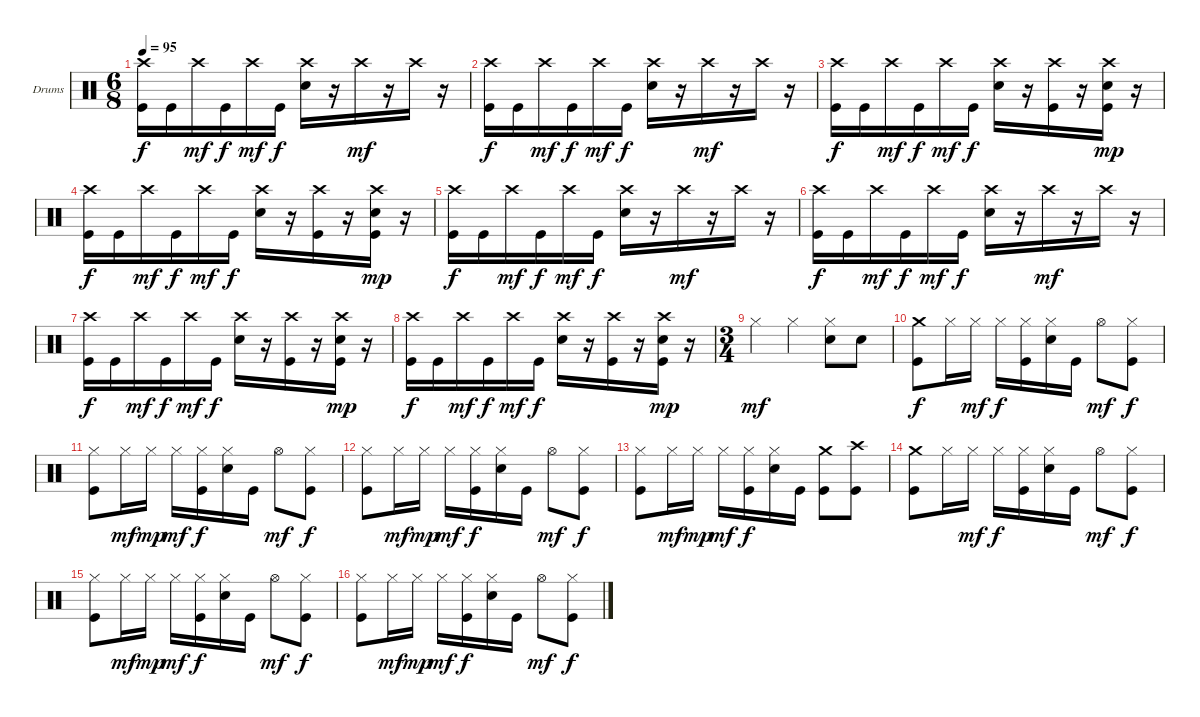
\defaultSystemsLayout 4
\bracketExtendMode groupsimilarinstruments
\firstSystemTrackNameOrientation horizontal
\otherSystemsTrackNameOrientation horizontal
\track ("Drumkit" "Drums") {instrument percussion}
\staff {score}
\articulation defaults
\ts (6 8)
\tempo 95
\clef neutral
\scale
0.474178
\ks c
("Kick (hit)" "Crash high (hit)").16{dy f} "Kick (hit)".16 "Crash high (hit)".16{dy mf} "Kick (hit)".16{dy f} "Crash high (hit)".16{dy mf} "Kick (hit)".16{dy f} ("Snare (hit) 2" "Crash high (hit)").16 r.16 "Crash high (hit)".16{dy mf} r.16 "Crash high (hit)".16 r.16 |
\scale
0.262911 ("Kick (hit)" "Crash high (hit)").16{dy f} "Kick (hit)".16 "Crash high (hit)".16{dy mf} "Kick (hit)".16{dy f} "Crash high (hit)".16{dy mf} "Kick (hit)".16{dy f} ("Snare (hit) 2" "Crash high (hit)").16 r.16 "Crash high (hit)".16{dy mf} r.16 "Crash high (hit)".16 r.16 |
\scale
0.333333 ("Kick (hit)" "Crash high (hit)").16{dy f} "Kick (hit)".16 "Crash high (hit)".16{dy mf} "Kick (hit)".16{dy f} "Crash high (hit)".16{dy mf} "Kick (hit)".16{dy f} ("Snare (hit) 2" "Crash high (hit)").16 r.16 ("Kick (hit)" "Crash high (hit)").16 r.16 ("Kick (hit)" "Snare (hit) 2" "Crash high (hit)").16{dy mp} r.16 |
\scale
0.333333 ("Kick (hit)" "Crash high (hit)").16{dy f} "Kick (hit)".16 "Crash high (hit)".16{dy mf} "Kick (hit)".16{dy f} "Crash high (hit)".16{dy mf} "Kick (hit)".16{dy f} ("Snare (hit) 2" "Crash high (hit)").16 r.16 ("Kick (hit)" "Crash high (hit)").16 r.16 ("Kick (hit)" "Snare (hit) 2" "Crash high (hit)").16{dy mp} r.16 |
\scale
0.333333 ("Kick (hit)" "Crash high (hit)").16{dy f} "Kick (hit)".16 "Crash high (hit)".16{dy mf} "Kick (hit)".16{dy f} "Crash high (hit)".16{dy mf} "Kick (hit)".16{dy f} ("Snare (hit) 2" "Crash high (hit)").16 r.16 "Crash high (hit)".16{dy mf} r.16 "Crash high (hit)".16 r.16 |
\scale
0.333333 ("Kick (hit)" "Crash high (hit)").16{dy f} "Kick (hit)".16 "Crash high (hit)".16{dy mf} "Kick (hit)".16{dy f} "Crash high (hit)".16{dy mf} "Kick (hit)".16{dy f} ("Snare (hit) 2" "Crash high (hit)").16 r.16 "Crash high (hit)".16{dy mf} r.16 "Crash high (hit)".16 r.16 |
\scale
0.333333 ("Kick (hit)" "Crash high (hit)").16{dy f} "Kick (hit)".16 "Crash high (hit)".16{dy mf} "Kick (hit)".16{dy f} "Crash high (hit)".16{dy mf} "Kick (hit)".16{dy f} ("Snare (hit) 2" "Crash high (hit)").16 r.16 ("Kick (hit)" "Crash high (hit)").16 r.16 ("Kick (hit)" "Snare (hit) 2" "Crash high (hit)").16{dy mp} r.16 |
\scale
0.333333 ("Kick (hit)" "Crash high (hit)").16{dy f} "Kick (hit)".16 "Crash high (hit)".16{dy mf} "Kick (hit)".16{dy f} "Crash high (hit)".16{dy mf} "Kick (hit)".16{dy f} ("Snare (hit) 2" "Crash high (hit)").16 r.16 ("Kick (hit)" "Crash high (hit)").16 r.16 ("Kick (hit)" "Snare (hit) 2" "Crash high (hit)").16{dy mp} r.16 |
\ts (3 4)
"Hi-Hat (closed)".4{dy mf} "Hi-Hat (closed)".4 ("Hi-Hat (closed)" "Snare (hit) 2").8 "Snare (hit) 2".8 |
\scale
0.474178 ("Kick (hit)" "Crash medium (hit)").8{dy f} "Hi-Hat (closed)".16 "Hi-Hat (closed)".16{dy mf} "Hi-Hat (closed)".16{dy f} ("Kick (hit)" "Hi-Hat (closed)").16 ("Snare (hit) 2" "Hi-Hat (closed)").16 "Kick (hit)".16 "Hi-Hat (open)".8{dy mf} ("Kick (hit)" "Hi-Hat (closed)").8{dy f} |
\scale
0.262911 ("Kick (hit)" "Hi-Hat (closed)").8 "Hi-Hat (closed)".16{dy mf} "Hi-Hat (closed)".16{dy mp} "Hi-Hat (closed)".16{dy mf} ("Kick (hit)" "Hi-Hat (closed)").16{dy f} ("Snare (hit) 2" "Hi-Hat (closed)").16 "Kick (hit)".16 "Hi-Hat (open)".8{dy mf} ("Kick (hit)" "Hi-Hat (closed)").8{dy f} |
\scale
0.262911 ("Kick (hit)" "Hi-Hat (closed)").8 "Hi-Hat (closed)".16{dy mf} "Hi-Hat (closed)".16{dy mp} "Hi-Hat (closed)".16{dy mf} ("Kick (hit)" "Hi-Hat (closed)").16{dy f} ("Snare (hit) 2" "Hi-Hat (closed)").16 "Kick (hit)".16 "Hi-Hat (open)".8{dy mf} ("Kick (hit)" "Hi-Hat (closed)").8{dy f} |
\scale
0.333333 ("Kick (hit)" "Hi-Hat (closed)").8 "Hi-Hat (closed)".16{dy mf} "Hi-Hat (closed)".16{dy mp} "Hi-Hat (closed)".16{dy mf} ("Kick (hit)" "Hi-Hat (closed)").16{dy f} ("Snare (hit) 2" "Hi-Hat (closed)").16 "Kick (hit)".16 ("Kick (hit)" "Crash medium (hit)").8 ("Kick (hit)" "Crash high (hit)").8 |
\scale
0.333333 ("Kick (hit)" "Crash medium (hit)").8 "Hi-Hat (closed)".16 "Hi-Hat (closed)".16{dy mf} "Hi-Hat (closed)".16{dy f} ("Kick (hit)" "Hi-Hat (closed)").16 ("Snare (hit) 2" "Hi-Hat (closed)").16 "Kick (hit)".16 "Hi-Hat (open)".8{dy mf} ("Kick (hit)" "Hi-Hat (closed)").8{dy f} |
\scale
0.333333 ("Kick (hit)" "Hi-Hat (closed)").8 "Hi-Hat (closed)".16{dy mf} "Hi-Hat (closed)".16{dy mp} "Hi-Hat (closed)".16{dy mf} ("Kick (hit)" "Hi-Hat (closed)").16{dy f} ("Snare (hit) 2" "Hi-Hat (closed)").16 "Kick (hit)".16 "Hi-Hat (open)".8{dy mf} ("Kick (hit)" "Hi-Hat (closed)").8{dy f} |
("Kick (hit)" "Hi-Hat (closed)").8 "Hi-Hat (closed)".16{dy mf} "Hi-Hat (closed)".16{dy mp} "Hi-Hat (closed)".16{dy mf} ("Kick (hit)" "Hi-Hat (closed)").16{dy f} ("Snare (hit) 2" "Hi-Hat (closed)").16 "Kick (hit)".16 "Hi-Hat (open)".8{dy mf} ("Kick (hit)" "Hi-Hat (closed)").8{dy f}
